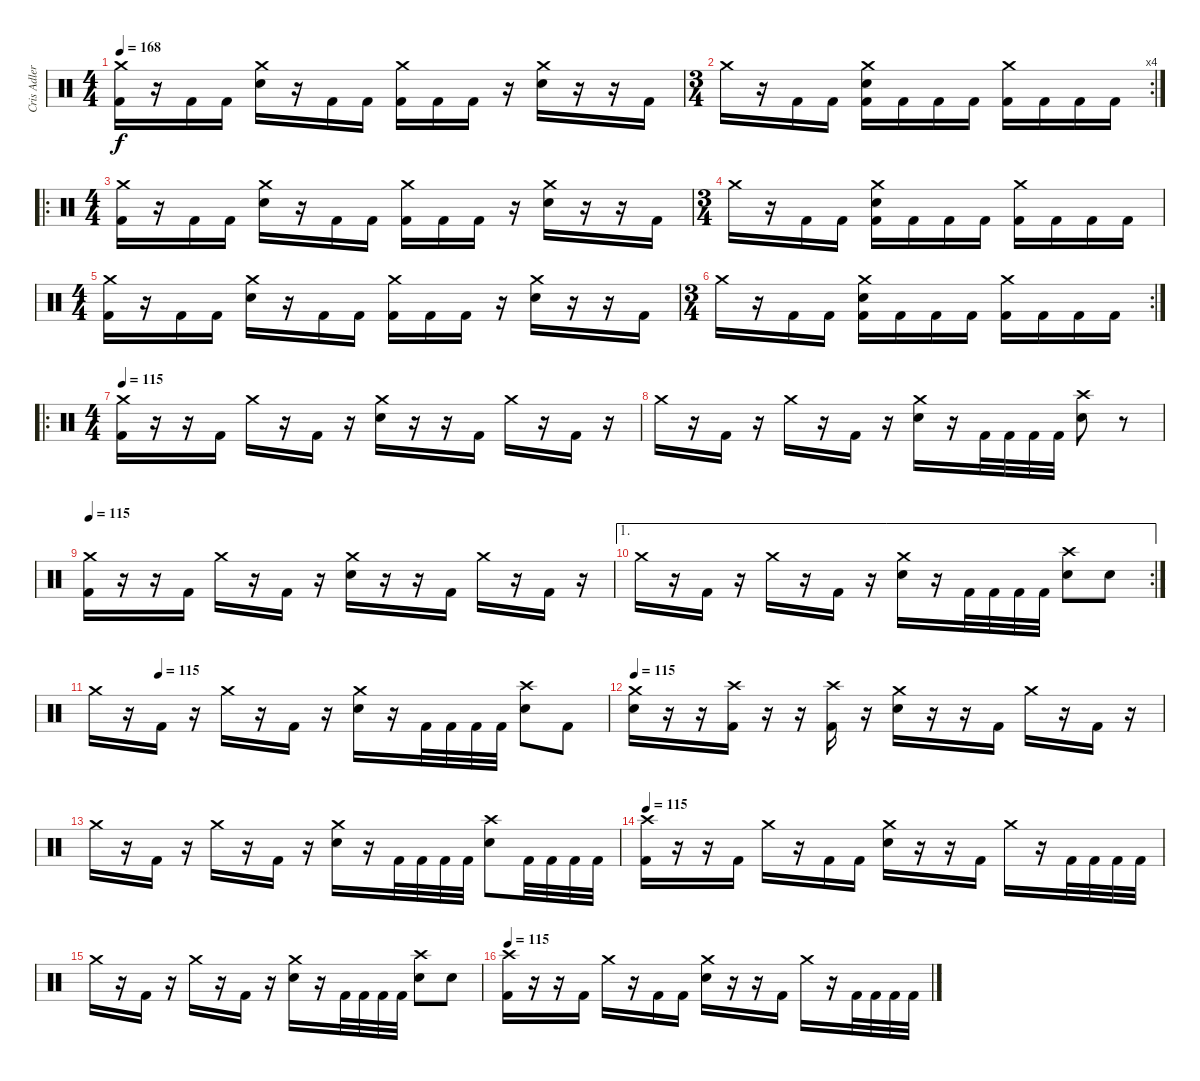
\track ("Cris Adler" "Cris Adler") {instrument percussion}
\staff {score}
\articulation defaults
\ts (4 4)
\tempo 168
\clef neutral
\ks c
("Crash medium (hit)" "Kick (hit) 2").16{dy f} r.16 "Kick (hit) 2".16 "Kick (hit) 2".16 ("Crash medium (hit)" "Electric Snare (hit)").16 r.16 "Kick (hit) 2".16 "Kick (hit) 2".16 ("Crash medium (hit)" "Kick (hit) 2").16 "Kick (hit) 2".16 "Kick (hit) 2".16 r.16 ("Crash medium (hit)" "Electric Snare (hit)").16 r.16 r.16 "Kick (hit) 2".16 |
\rc 4
\ts (3 4)
"Crash medium (hit)".16 r.16 "Kick (hit) 2".16 "Kick (hit) 2".16 ("Crash medium (hit)" "Electric Snare (hit)" "Kick (hit) 2").16 "Kick (hit) 2".16 "Kick (hit) 2".16 "Kick (hit) 2".16 ("Crash medium (hit)" "Kick (hit) 2").16 "Kick (hit) 2".16 "Kick (hit) 2".16 "Kick (hit) 2".16 |
\ro
\ts (4 4)
("Crash medium (hit)" "Kick (hit) 2").16 r.16 "Kick (hit) 2".16 "Kick (hit) 2".16 ("Crash medium (hit)" "Electric Snare (hit)").16 r.16 "Kick (hit) 2".16 "Kick (hit) 2".16 ("Crash medium (hit)" "Kick (hit) 2").16 "Kick (hit) 2".16 "Kick (hit) 2".16 r.16 ("Crash medium (hit)" "Electric Snare (hit)").16 r.16 r.16 "Kick (hit) 2".16 |
\ts (3 4)
"Crash medium (hit)".16 r.16 "Kick (hit) 2".16 "Kick (hit) 2".16 ("Crash medium (hit)" "Electric Snare (hit)" "Kick (hit) 2").16 "Kick (hit) 2".16 "Kick (hit) 2".16 "Kick (hit) 2".16 ("Crash medium (hit)" "Kick (hit) 2").16 "Kick (hit) 2".16 "Kick (hit) 2".16 "Kick (hit) 2".16 |
\ts (4 4)
("Crash medium (hit)" "Kick (hit) 2").16 r.16 "Kick (hit) 2".16 "Kick (hit) 2".16 ("Crash medium (hit)" "Electric Snare (hit)").16 r.16 "Kick (hit) 2".16 "Kick (hit) 2".16 ("Crash medium (hit)" "Kick (hit) 2").16 "Kick (hit) 2".16 "Kick (hit) 2".16 r.16 ("Crash medium (hit)" "Electric Snare (hit)").16 r.16 r.16 "Kick (hit) 2".16 |
\rc 2
\ts (3 4)
"Crash medium (hit)".16 r.16 "Kick (hit) 2".16 "Kick (hit) 2".16 ("Crash medium (hit)" "Electric Snare (hit)" "Kick (hit) 2").16 "Kick (hit) 2".16 "Kick (hit) 2".16 "Kick (hit) 2".16 ("Crash medium (hit)" "Kick (hit) 2").16 "Kick (hit) 2".16 "Kick (hit) 2".16 "Kick (hit) 2".16 |
\ro
\ts (4 4)
\tempo 115
("Crash medium (hit)" "Kick (hit) 2").16 r.16 r.16 "Kick (hit) 2".16 "Crash medium (hit)".16 r.16 "Kick (hit) 2".16 r.16 ("Crash medium (hit)" "Electric Snare (hit)").16 r.16 r.16 "Kick (hit) 2".16 "Crash medium (hit)".16 r.16 "Kick (hit) 2".16 r.16 |
"Crash medium (hit)".16 r.16 "Kick (hit) 2".16 r.16 "Crash medium (hit)".16 r.16 "Kick (hit) 2".16 r.16 ("Crash medium (hit)" "Electric Snare (hit)").16 r.16 "Kick (hit) 2".32 "Kick (hit) 2".32 "Kick (hit) 2".32 "Kick (hit) 2".32 ("Crash high (hit)" "Electric Snare (hit)").8 r.8 |
\tempo 115
("Crash medium (hit)" "Kick (hit) 2").16 r.16 r.16 "Kick (hit) 2".16 "Crash medium (hit)".16 r.16 "Kick (hit) 2".16 r.16 ("Crash medium (hit)" "Electric Snare (hit)").16 r.16 r.16 "Kick (hit) 2".16 "Crash medium (hit)".16 r.16 "Kick (hit) 2".16 r.16 |
\ae 1
\rc 2 "Crash medium (hit)".16
r.16 "Kick (hit) 2".16 r.16 "Crash medium (hit)".16 r.16 "Kick (hit) 2".16 r.16 ("Crash medium (hit)" "Electric Snare (hit)").16 r.16 "Kick (hit) 2".32 "Kick (hit) 2".32 "Kick (hit) 2".32 "Kick (hit) 2".32 ("Crash high (hit)" "Electric Snare (hit)").8 "Electric Snare (hit)".8 |
\tempo (115 0.125)
"Crash medium (hit)".16 r.16 "Kick (hit) 2".16 r.16 "Crash medium (hit)".16 r.16 "Kick (hit) 2".16 r.16 ("Crash medium (hit)" "Electric Snare (hit)").16 r.16 "Kick (hit) 2".32 "Kick (hit) 2".32 "Kick (hit) 2".32 "Kick (hit) 2".32 ("Crash high (hit)" "Electric Snare (hit)").8 "Kick (hit) 2".8 |
\tempo 115
("Crash medium (hit)" "Electric Snare (hit)").16 r.16 r.16 ("Crash high (hit)" "Kick (hit) 2").16 r.16 r.16 ("Crash high (hit)" "Kick (hit) 2").16 r.16 ("Crash medium (hit)" "Electric Snare (hit)").16 r.16 r.16 "Kick (hit) 2".16 "Crash medium (hit)".16 r.16 "Kick (hit) 2".16 r.16 |
"Crash medium (hit)".16 r.16 "Kick (hit) 2".16 r.16 "Crash medium (hit)".16 r.16 "Kick (hit) 2".16 r.16 ("Crash medium (hit)" "Electric Snare (hit)").16 r.16 "Kick (hit) 2".32 "Kick (hit) 2".32 "Kick (hit) 2".32 "Kick (hit) 2".32 ("Crash high (hit)" "Electric Snare (hit)").8 "Kick (hit) 2".32 "Kick (hit) 2".32 "Kick (hit) 2".32 "Kick (hit) 2".32 |
\tempo 115
("Crash high (hit)" "Kick (hit) 2").16 r.16 r.16 "Kick (hit) 2".16 "Crash medium (hit)".16 r.16 "Kick (hit) 2".16 "Kick (hit) 2".16 ("Crash medium (hit)" "Electric Snare (hit)").16 r.16 r.16 "Kick (hit) 2".16 "Crash medium (hit)".16 r.16 "Kick (hit) 2".32 "Kick (hit) 2".32 "Kick (hit) 2".32 "Kick (hit) 2".32 |
"Crash medium (hit)".16 r.16 "Kick (hit) 2".16 r.16 "Crash medium (hit)".16 r.16 "Kick (hit) 2".16 r.16 ("Crash medium (hit)" "Electric Snare (hit)").16 r.16 "Kick (hit) 2".32 "Kick (hit) 2".32 "Kick (hit) 2".32 "Kick (hit) 2".32 ("Crash high (hit)" "Electric Snare (hit)").8 "Electric Snare (hit)".8 |
\tempo 115
("Crash high (hit)" "Kick (hit) 2").16 r.16 r.16 "Kick (hit) 2".16 "Crash medium (hit)".16 r.16 "Kick (hit) 2".16 "Kick (hit) 2".16 ("Crash medium (hit)" "Electric Snare (hit)").16 r.16 r.16 "Kick (hit) 2".16 "Crash medium (hit)".16 r.16 "Kick (hit) 2".32 "Kick (hit) 2".32 "Kick (hit) 2".32 "Kick (hit) 2".32
